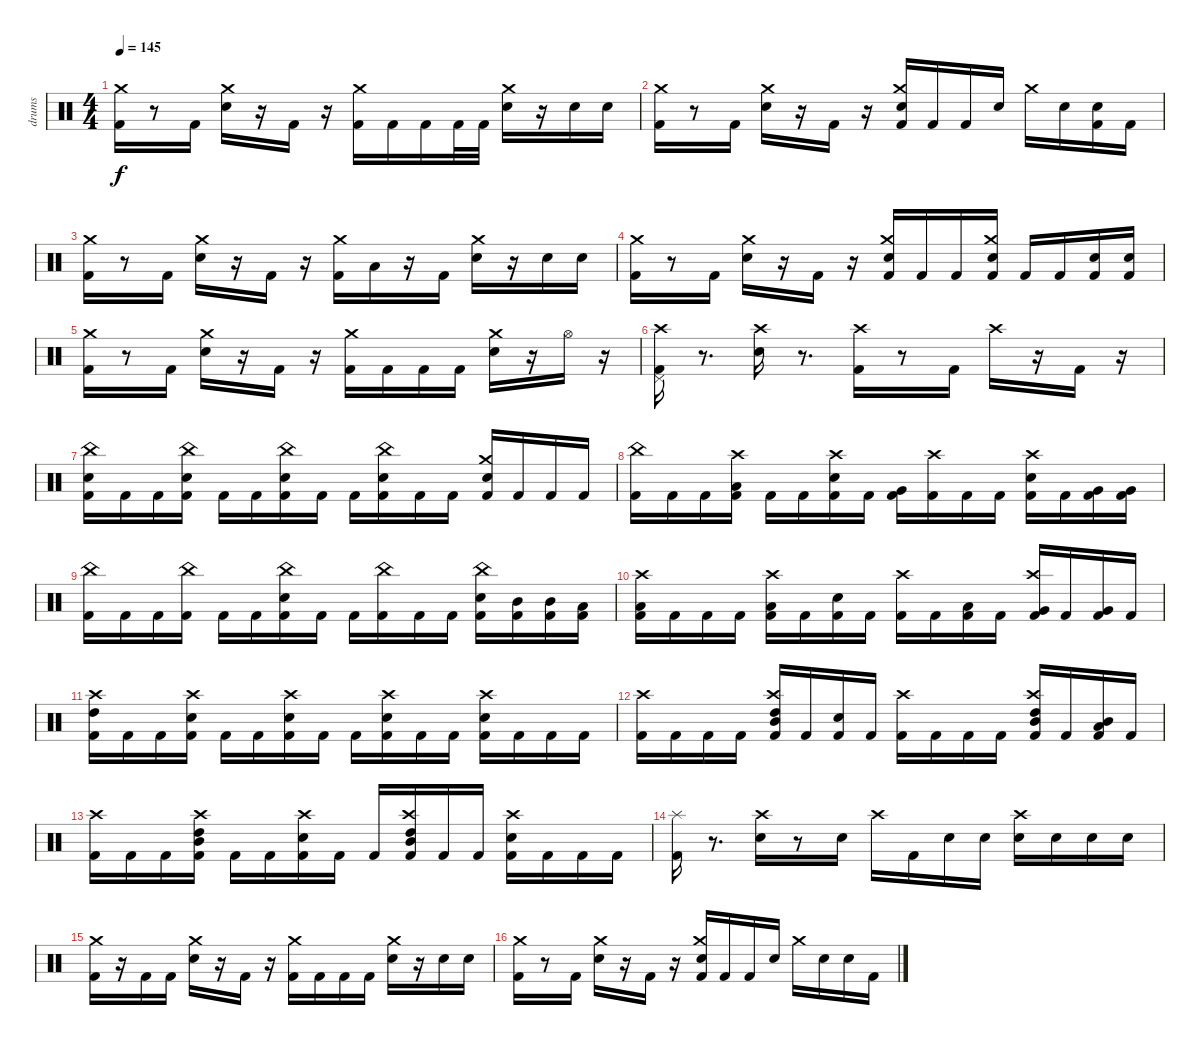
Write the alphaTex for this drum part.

\track ("drums" "drums") {instrument percussion}
\staff {score}
\articulation defaults
\ts (4 4)
\tempo 145
\clef neutral
\ks c
("Kick (hit) 2" "Crash medium (hit)").16{dy f} r.8 "Kick (hit) 2".16 ("Snare (hit) 2" "Crash medium (hit)").16 r.16 "Kick (hit) 2".16 r.16 ("Kick (hit) 2" "Crash medium (hit)").16 "Kick (hit) 2".16 "Kick (hit) 2".16 "Kick (hit) 2".32 "Kick (hit) 2".32 ("Snare (hit) 2" "Crash medium (hit)").16 r.16 "Snare (hit) 2".16 "Snare (hit) 2".16 |
("Kick (hit) 2" "Crash medium (hit)").16 r.8 "Kick (hit) 2".16 ("Snare (hit) 2" "Crash medium (hit)").16 r.16 "Kick (hit) 2".16 r.16 ("Kick (hit) 2" "Snare (hit) 2" "Crash medium (hit)").16 "Kick (hit) 2".16 "Kick (hit) 2".16 "Snare (hit) 2".16 "Crash medium (hit)".16 "Snare (hit) 2".16 ("Kick (hit) 2" "Snare (hit) 2").16 "Kick (hit) 2".16 |
("Kick (hit) 2" "Crash medium (hit)").16 r.8 "Kick (hit) 2".16 ("Snare (hit) 2" "Crash medium (hit)").16 r.16 "Kick (hit) 2".16 r.16 ("Kick (hit) 2" "Crash medium (hit)").16 "Low Tom (hit)".16 r.16 "Kick (hit) 2".16 ("Snare (hit) 2" "Crash medium (hit)").16 r.16 "Snare (hit) 2".16 "Snare (hit) 2".16 |
("Kick (hit) 2" "Crash medium (hit)").16 r.8 "Kick (hit) 2".16 ("Snare (hit) 2" "Crash medium (hit)").16 r.16 "Kick (hit) 2".16 r.16 ("Kick (hit) 2" "Snare (hit) 2" "Crash medium (hit)").16 "Kick (hit) 2".16 "Kick (hit) 2".16 ("Kick (hit) 2" "Snare (hit) 2" "Crash medium (hit)").16 "Kick (hit) 2".16 "Kick (hit) 2".16 ("Kick (hit) 2" "Snare (hit) 2").16 ("Kick (hit) 2" "Snare (hit) 2").16 |
("Kick (hit) 2" "Crash medium (hit)").16 r.8 "Kick (hit) 2".16 ("Snare (hit) 2" "Crash medium (hit)").16 r.16 "Kick (hit) 2".16 r.16 ("Kick (hit) 2" "Crash medium (hit)").16 "Kick (hit) 2".16 "Kick (hit) 2".16 "Kick (hit) 2".16 ("Snare (hit) 2" "Crash medium (hit)").16 r.16 "Hi-Hat (open)".16 r.16 |
("Kick (hit) 2" "Pedal Hi-Hat (hit)" "Crash high (hit)").16 r.8{d} ("Snare (hit) 2" "Crash high (hit)").16 r.8{d} ("Kick (hit) 2" "Crash high (hit)").16 r.8 "Kick (hit) 2".16 "Crash high (hit)".16 r.16 "Kick (hit) 2".16 r.16 |
("Kick (hit) 2" "Snare (hit) 2" "China (hit)").16 "Kick (hit) 2".16 "Kick (hit) 2".16 ("Kick (hit) 2" "Snare (hit) 2" "China (hit)").16 "Kick (hit) 2".16 "Kick (hit) 2".16 ("Kick (hit) 2" "Snare (hit) 2" "China (hit)").16 "Kick (hit) 2".16 "Kick (hit) 2".16 ("Kick (hit) 2" "Snare (hit) 2" "China (hit)").16 "Kick (hit) 2".16 "Kick (hit) 2".16 ("Kick (hit) 2" "Snare (hit) 2" "Crash medium (hit)").16 "Kick (hit) 2".16 "Kick (hit) 2".16 "Kick (hit) 2".16 |
("Kick (hit) 2" "China (hit)").16 "Kick (hit) 2".16 "Kick (hit) 2".16 ("Kick (hit) 2" "Low Tom (hit)" "Crash high (hit)").16 "Kick (hit) 2".16 "Kick (hit) 2".16 ("Kick (hit) 2" "Snare (hit) 2" "Crash high (hit)").16 "Kick (hit) 2".16 ("Kick (hit) 2" "Very Low Tom (hit)").16 ("Kick (hit) 2" "Crash high (hit)").16 "Kick (hit) 2".16 "Kick (hit) 2".16 ("Kick (hit) 2" "Snare (hit) 2" "Crash high (hit)").16 "Kick (hit) 2".16 ("Kick (hit) 2" "Very Low Tom (hit)").16 ("Kick (hit) 2" "Very Low Tom (hit)").16 |
("Kick (hit) 2" "China (hit)").16 "Kick (hit) 2".16 "Kick (hit) 2".16 ("Kick (hit) 2" "China (hit)").16 "Kick (hit) 2".16 "Kick (hit) 2".16 ("Kick (hit) 2" "Snare (hit) 2" "China (hit)").16 "Kick (hit) 2".16 "Kick (hit) 2".16 ("Kick (hit) 2" "China (hit)").16 "Kick (hit) 2".16 "Kick (hit) 2".16 ("Kick (hit) 2" "Snare (hit) 2" "China (hit)").16 ("Kick (hit) 2" "Mid Tom (hit)").16 ("Kick (hit) 2" "Mid Tom (hit)").16 ("Kick (hit) 2" "Low Tom (hit)").16 |
("Kick (hit) 2" "Low Tom (hit)" "Crash high (hit)").16 "Kick (hit) 2".16 "Kick (hit) 2".16 "Kick (hit) 2".16 ("Kick (hit) 2" "Low Tom (hit)" "Crash high (hit)").16 "Kick (hit) 2".16 ("Kick (hit) 2" "Snare (hit) 2").16 "Kick (hit) 2".16 ("Kick (hit) 2" "Crash high (hit)").16 "Kick (hit) 2".16 ("Kick (hit) 2" "Low Tom (hit)").16 "Kick (hit) 2".16 ("Kick (hit) 2" "Very Low Tom (hit)" "Crash high (hit)").16 "Kick (hit) 2".16 ("Kick (hit) 2" "Very Low Tom (hit)").16 "Kick (hit) 2".16 |
("Kick (hit) 2" "High Tom (hit)" "Crash high (hit)").16 "Kick (hit) 2".16 "Kick (hit) 2".16 ("Kick (hit) 2" "Snare (hit) 2" "Crash high (hit)").16 "Kick (hit) 2".16 "Kick (hit) 2".16 ("Kick (hit) 2" "Snare (hit) 2" "Crash high (hit)").16 "Kick (hit) 2".16 "Kick (hit) 2".16 ("Kick (hit) 2" "Snare (hit) 2" "Crash high (hit)").16 "Kick (hit) 2".16 "Kick (hit) 2".16 ("Kick (hit) 2" "Snare (hit) 2" "Crash high (hit)").16 "Kick (hit) 2".16 "Kick (hit) 2".16 "Kick (hit) 2".16 |
("Kick (hit) 2" "Crash high (hit)").16 "Kick (hit) 2".16 "Kick (hit) 2".16 "Kick (hit) 2".16 ("Kick (hit) 2" "Mid Tom (hit)" "High Tom (hit)" "Crash high (hit)").16 "Kick (hit) 2".16 ("Kick (hit) 2" "Snare (hit) 2").16 "Kick (hit) 2".16 ("Kick (hit) 2" "Crash high (hit)").16 "Kick (hit) 2".16 "Kick (hit) 2".16 "Kick (hit) 2".16 ("Kick (hit) 2" "Mid Tom (hit)" "High Tom (hit)" "Crash high (hit)").16 "Kick (hit) 2".16 ("Kick (hit) 2" "Low Tom (hit)" "Mid Tom (hit)").16 "Kick (hit) 2".16 |
("Kick (hit) 2" "Crash high (hit)").16 "Kick (hit) 2".16 "Kick (hit) 2".16 ("Kick (hit) 2" "Mid Tom (hit)" "High Tom (hit)" "Crash high (hit)").16 "Kick (hit) 2".16 "Kick (hit) 2".16 ("Kick (hit) 2" "Snare (hit) 2" "Crash high (hit)").16 "Kick (hit) 2".16 "Kick (hit) 2".16 ("Kick (hit) 2" "Mid Tom (hit)" "High Tom (hit)" "Crash high (hit)").16 "Kick (hit) 2".16 "Kick (hit) 2".16 ("Kick (hit) 2" "Snare (hit) 2" "Crash high (hit)").16 "Kick (hit) 2".16 "Kick (hit) 2".16 "Kick (hit) 2".16 |
("Kick (hit) 2" "Splash (hit)").16 r.8{d} ("Snare (hit) 2" "Crash high (hit)").16 r.8 "Snare (hit) 2".16 "Crash high (hit)".16 "Kick (hit) 2".16 "Snare (hit) 2".16 "Snare (hit) 2".16 ("Snare (hit) 2" "Crash high (hit)").16 "Snare (hit) 2".16 "Snare (hit) 2".16 "Snare (hit) 2".16 |
("Kick (hit) 2" "Crash medium (hit)").16 r.16 "Kick (hit) 2".16 "Kick (hit) 2".16 ("Snare (hit) 2" "Crash medium (hit)").16 r.16 "Kick (hit) 2".16 r.16 ("Kick (hit) 2" "Crash medium (hit)").16 "Kick (hit) 2".16 "Kick (hit) 2".16 "Kick (hit) 2".16 ("Snare (hit) 2" "Crash medium (hit)").16 r.16 "Snare (hit) 2".16 "Snare (hit) 2".16 |
("Kick (hit) 2" "Crash medium (hit)").16 r.8 "Kick (hit) 2".16 ("Snare (hit) 2" "Crash medium (hit)").16 r.16 "Kick (hit) 2".16 r.16 ("Kick (hit) 2" "Snare (hit) 2" "Crash medium (hit)").16 "Kick (hit) 2".16 "Kick (hit) 2".16 "Snare (hit) 2".16 "Crash medium (hit)".16 "Snare (hit) 2".16 "Snare (hit) 2".16 "Kick (hit) 2".16
